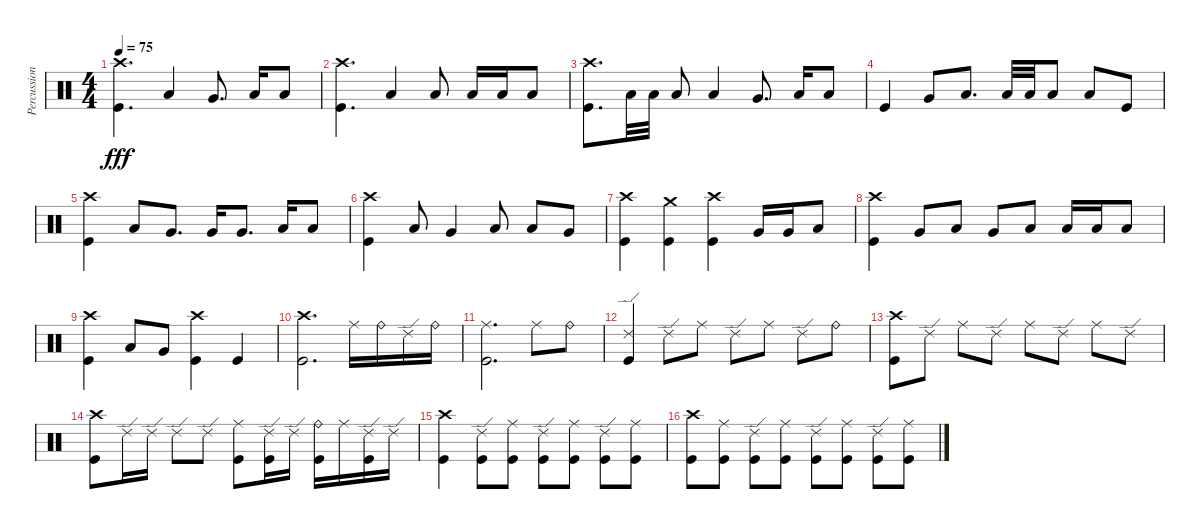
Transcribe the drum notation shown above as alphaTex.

\track ("Percussion" "Percussion") {instrument percussion}
\staff {score}
\articulation defaults
\ts (4 4)
\tempo 75
\clef neutral
\ks c
("Crash high (hit)" "Kick (hit)").4{d dy fff} "Low Tom (hit)".4 "Very Low Tom (hit)".8{d} "Low Floor Tom (hit)".16 "Low Floor Tom (hit)".8 |
("Crash high (hit)" "Kick (hit)").4{d} "Low Tom (hit)".4 "Low Floor Tom (hit)".8 "Low Tom (hit)".16 "Low Tom (hit)".16 "Low Tom (hit)".8 |
("Crash high (hit)" "Kick (hit)").8{d} "Low Tom (hit)".32 "Low Tom (hit)".32 "Low Tom (hit)".8 "Low Tom (hit)".4 "Very Low Tom (hit)".8{d} "Low Floor Tom (hit)".16 "Low Floor Tom (hit)".8 |
"Kick (hit)".4 "Very Low Tom (hit)".8 "Low Floor Tom (hit)".8{d} "Low Tom (hit)".32 "Low Tom (hit)".32 "Low Tom (hit)".8 "Low Floor Tom (hit)".8 "Kick (hit)".8 |
("Crash high (hit)" "Kick (hit)").4 "Low Tom (hit)".8 "Very Low Tom (hit)".8{d} "Very Low Tom (hit)".16 "Very Low Tom (hit)".8{d} "Low Floor Tom (hit)".16 "Low Floor Tom (hit)".8 |
("Crash high (hit)" "Kick (hit)").4 "Low Tom (hit)".8 "Very Low Tom (hit)".4 "Low Tom (hit)".8 "Low Floor Tom (hit)".8 "Very Low Tom (hit)".8 |
("Crash high (hit)" "Kick (hit)").4 ("Crash medium (hit)" "Kick (hit)").4 ("Crash high (hit)" "Kick (hit)").4 "Very Low Tom (hit)".16 "Very Low Tom (hit)".16 "Low Floor Tom (hit)".8 |
("Crash high (hit)" "Kick (hit)").4 "Very Low Tom (hit)".8 "Low Floor Tom (hit)".8 "Very Low Tom (hit)".8 "Low Floor Tom (hit)".8 "Low Tom (hit)".16 "Low Tom (hit)".16 "Low Tom (hit)".8 |
("Crash high (hit)" "Kick (hit)").4 "Low Floor Tom (hit)".8 "Very Low Tom (hit)".8 ("Crash high (hit)" "Kick (hit)").4 "Kick (hit)".4 |
("Crash high (hit)" "Kick (hit)").2{d} "Ride (middle)".16 "Ride (bell)".16 "Ride (edge) 2".16 "Ride (bell)".16 |
("Ride (middle)" "Kick (hit)").2{d} "Ride (middle)".8 "Ride (bell)".8 |
("Ride (edge) 2" "Kick (hit)").4 "Ride (edge) 2".8 "Ride (middle)".8 "Ride (edge) 2".8 "Ride (middle)".8 "Ride (edge) 2".8 "Ride (bell)".8 |
("Crash high (hit)" "Kick (hit)").8 "Ride (edge) 2".8 "Ride (middle)".8 "Ride (edge) 2".8 "Ride (middle)".8 "Ride (edge) 2".8 "Ride (middle)".8 "Ride (edge) 2".8 |
("Crash high (hit)" "Kick (hit)").8 "Ride (edge) 2".16 "Ride (edge) 2".16 "Ride (edge) 2".8 "Ride (edge) 2".8 ("Ride (middle)" "Kick (hit)").8 ("Ride (edge) 2" "Kick (hit)").16 "Ride (edge) 2".16 ("Ride (bell)" "Kick (hit)").16 "Ride (middle)".16 ("Ride (edge) 2" "Kick (hit)").16 "Ride (edge) 2".16 |
("Crash high (hit)" "Kick (hit)").4 ("Ride (edge) 2" "Kick (hit)").8 ("Ride (middle)" "Kick (hit)").8 ("Ride (edge) 2" "Kick (hit)").8 ("Ride (middle)" "Kick (hit)").8 ("Ride (edge) 2" "Kick (hit)").8 ("Ride (middle)" "Kick (hit)").8 |
("Crash high (hit)" "Kick (hit)").8 ("Ride (middle)" "Kick (hit)").8 ("Ride (edge) 2" "Kick (hit)").8 ("Ride (middle)" "Kick (hit)").8 ("Ride (edge) 2" "Kick (hit)").8 ("Ride (middle)" "Kick (hit)").8 ("Ride (edge) 2" "Kick (hit)").8 ("Ride (middle)" "Kick (hit)").8
